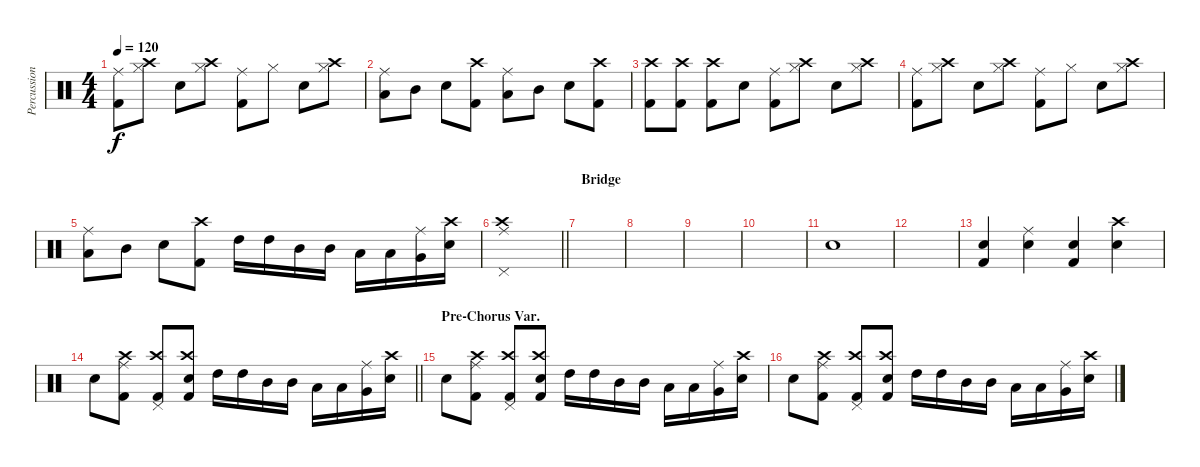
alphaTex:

\track ("Percussion" "Percussion") {instrument percussion}
\staff {score}
\articulation defaults
\ts (4 4)
\tempo 120
\clef neutral
\ks c
("Ride (middle)" "Kick (hit) 2").8{dy f} ("Crash high (hit)" "Hi-Hat (closed)").8 "Electric Snare (hit)".8 ("Crash high (hit)" "Hi-Hat (closed)").8 ("Ride (middle)" "Kick (hit) 2").8 "Hi-Hat (closed)".8 "Electric Snare (hit)".8 ("Crash high (hit)" "Hi-Hat (closed)").8 |
("Ride (middle)" "Low Tom (hit)").8 "Mid Tom (hit)".8 "Electric Snare (hit)".8 ("Crash high (hit)" "Kick (hit) 2").8 ("Ride (middle)" "Low Tom (hit)").8 "Mid Tom (hit)".8 "Electric Snare (hit)".8 ("Crash high (hit)" "Kick (hit) 2").8 |
("Crash high (hit)" "Kick (hit) 2").8 ("Crash high (hit)" "Kick (hit) 2").8 ("Crash high (hit)" "Kick (hit) 2").8 "Electric Snare (hit)".8 ("Ride (middle)" "Kick (hit) 2").8 ("Crash high (hit)" "Hi-Hat (closed)").8 "Electric Snare (hit)".8 ("Crash high (hit)" "Hi-Hat (closed)").8 |
("Ride (middle)" "Kick (hit) 2").8 ("Crash high (hit)" "Hi-Hat (closed)").8 "Electric Snare (hit)".8 ("Crash high (hit)" "Hi-Hat (closed)").8 ("Ride (middle)" "Kick (hit) 2").8 "Hi-Hat (closed)".8 "Electric Snare (hit)".8 ("Crash high (hit)" "Hi-Hat (closed)").8 |
("Ride (middle)" "Low Tom (hit)").8 "Mid Tom (hit)".8 "Electric Snare (hit)".8 ("Crash high (hit)" "Kick (hit) 2").8 "High Tom (hit)".16 "High Tom (hit)".16 "Mid Tom (hit)".16 "Mid Tom (hit)".16 "Low Tom (hit)".16 "Low Tom (hit)".16 ("Ride (middle)" "Very Low Tom (hit)").16 ("Crash high (hit)" "Electric Snare (hit)").16 |
\barLineRight lightlight
("Crash high (hit)" "Ride (middle)" "Pedal Hi-Hat (hit)").1 |
\section ("" "Bridge")
|
|
|
|
"Electric Snare (hit)".1 |
|
("Electric Snare (hit)" "Kick (hit) 2").4 ("Ride (middle)" "Electric Snare (hit)").4 ("Electric Snare (hit)" "Kick (hit) 2").4 ("Crash high (hit)" "Electric Snare (hit)").4 |
\barLineRight lightlight "Electric Snare (hit)".8
("Crash high (hit)" "Ride (middle)" "Kick (hit) 2").8 ("Crash high (hit)" "Pedal Hi-Hat (hit)" "Kick (hit) 2").8 ("Crash high (hit)" "Electric Snare (hit)" "Kick (hit) 2").8 "High Tom (hit)".16 "High Tom (hit)".16 "Mid Tom (hit)".16 "Mid Tom (hit)".16 "Low Tom (hit)".16 "Low Tom (hit)".16 ("Ride (middle)" "Very Low Tom (hit)").16 ("Crash high (hit)" "Electric Snare (hit)").16 |
\section ("" "Pre-Chorus Var.")
"Electric Snare (hit)".8 ("Crash high (hit)" "Ride (middle)" "Kick (hit) 2").8 ("Crash high (hit)" "Pedal Hi-Hat (hit)" "Kick (hit) 2").8 ("Crash high (hit)" "Electric Snare (hit)" "Kick (hit) 2").8 "High Tom (hit)".16 "High Tom (hit)".16 "Mid Tom (hit)".16 "Mid Tom (hit)".16 "Low Tom (hit)".16 "Low Tom (hit)".16 ("Ride (middle)" "Very Low Tom (hit)").16 ("Crash high (hit)" "Electric Snare (hit)").16 |
"Electric Snare (hit)".8 ("Crash high (hit)" "Ride (middle)" "Kick (hit) 2").8 ("Crash high (hit)" "Pedal Hi-Hat (hit)" "Kick (hit) 2").8 ("Crash high (hit)" "Electric Snare (hit)" "Kick (hit) 2").8 "High Tom (hit)".16 "High Tom (hit)".16 "Mid Tom (hit)".16 "Mid Tom (hit)".16 "Low Tom (hit)".16 "Low Tom (hit)".16 ("Ride (middle)" "Very Low Tom (hit)").16 ("Crash high (hit)" "Electric Snare (hit)").16
